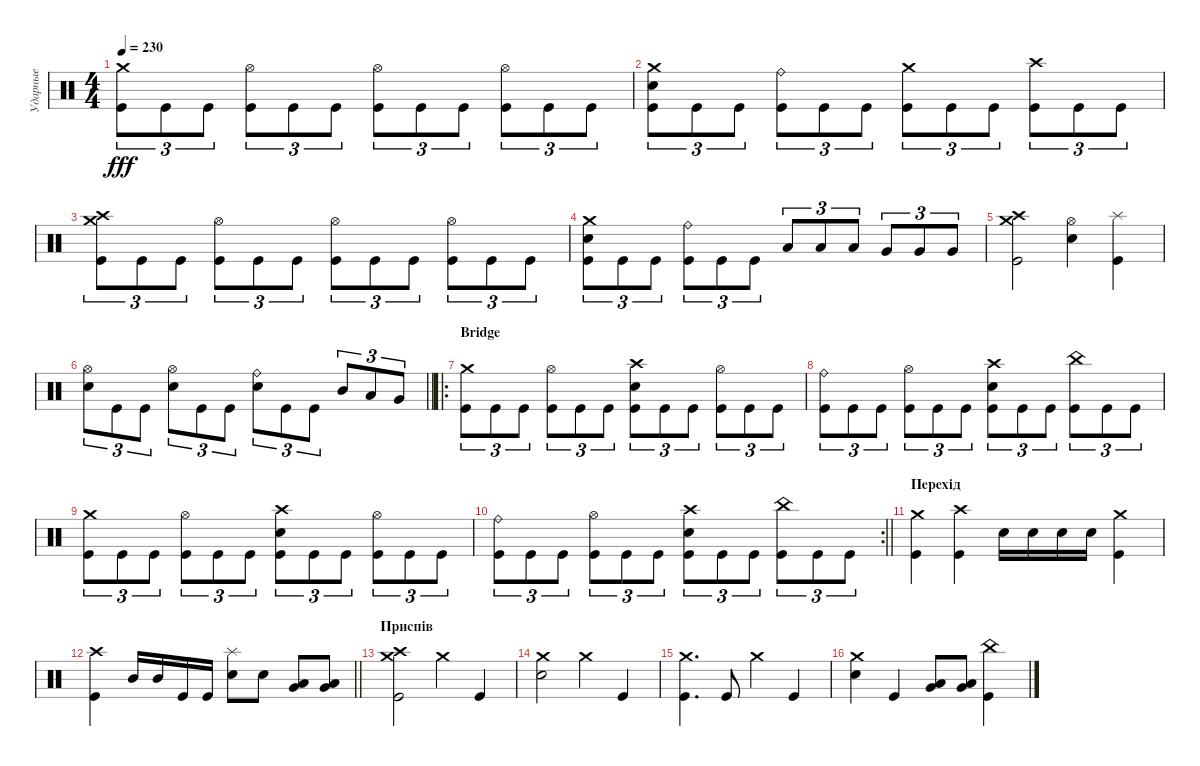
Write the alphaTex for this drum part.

\track ("Ударные" "Ударные") {instrument percussion}
\staff {score}
\articulation defaults
\ts (4 4)
\tempo 230
\clef neutral
\ks c
("Crash medium (hit)" "Kick (hit)").8{tu (3 2) dy fff} "Kick (hit)".8{tu (3 2)} "Kick (hit)".8{tu (3 2)} ("Kick (hit)" "Hi-Hat (open)").8{tu (3 2)} "Kick (hit)".8{tu (3 2)} "Kick (hit)".8{tu (3 2)} ("Kick (hit)" "Hi-Hat (open)").8{tu (3 2)} "Kick (hit)".8{tu (3 2)} "Kick (hit)".8{tu (3 2)} ("Kick (hit)" "Hi-Hat (open)").8{tu (3 2)} "Kick (hit)".8{tu (3 2)} "Kick (hit)".8{tu (3 2)} |
("Kick (hit)" "Electric Snare (hit)" "Crash medium (hit)").8{tu (3 2)} "Kick (hit)".8{tu (3 2)} "Kick (hit)".8{tu (3 2)} ("Kick (hit)" "Ride (bell)").8{tu (3 2)} "Kick (hit)".8{tu (3 2)} "Kick (hit)".8{tu (3 2)} ("Kick (hit)" "Crash medium (hit)").8{tu (3 2)} "Kick (hit)".8{tu (3 2)} "Kick (hit)".8{tu (3 2)} ("Kick (hit)" "Crash high (hit)").8{tu (3 2)} "Kick (hit)".8{tu (3 2)} "Kick (hit)".8{tu (3 2)} |
("Crash medium (hit)" "Kick (hit)" "Crash high (hit)").8{tu (3 2)} "Kick (hit)".8{tu (3 2)} "Kick (hit)".8{tu (3 2)} ("Kick (hit)" "Hi-Hat (open)").8{tu (3 2)} "Kick (hit)".8{tu (3 2)} "Kick (hit)".8{tu (3 2)} ("Kick (hit)" "Hi-Hat (open)").8{tu (3 2)} "Kick (hit)".8{tu (3 2)} "Kick (hit)".8{tu (3 2)} ("Kick (hit)" "Hi-Hat (open)").8{tu (3 2)} "Kick (hit)".8{tu (3 2)} "Kick (hit)".8{tu (3 2)} |
("Kick (hit)" "Electric Snare (hit)" "Crash medium (hit)").8{tu (3 2)} "Kick (hit)".8{tu (3 2)} "Kick (hit)".8{tu (3 2)} ("Kick (hit)" "Ride (bell)").8{tu (3 2)} "Kick (hit)".8{tu (3 2)} "Kick (hit)".8{tu (3 2)} "Low Tom (hit)".8{tu (3 2)} "Low Tom (hit)".8{tu (3 2)} "Low Tom (hit)".8{tu (3 2)} "Very Low Tom (hit)".8{tu (3 2)} "Very Low Tom (hit)".8{tu (3 2)} "Very Low Tom (hit)".8{tu (3 2)} |
("Crash high (hit)" "Crash medium (hit)" "Kick (hit)").2 ("Hi-Hat (open)" "Electric Snare (hit)").4 ("Splash (hit)" "Kick (hit)").4 |
\barLineRight lightlight
("Electric Snare (hit)" "Hi-Hat (open)").8{tu (3 2)} "Kick (hit)".8{tu (3 2)} "Kick (hit)".8{tu (3 2)} ("Electric Snare (hit)" "Hi-Hat (open)").8{tu (3 2)} "Kick (hit)".8{tu (3 2)} "Kick (hit)".8{tu (3 2)} ("Electric Snare (hit)" "Ride (bell)").8{tu (3 2)} "Kick (hit)".8{tu (3 2)} "Kick (hit)".8{tu (3 2)} "Mid Tom (hit)".8{tu (3 2)} "Low Tom (hit)".8{tu (3 2)} "Very Low Tom (hit)".8{tu (3 2)} |
\ro
\section ("" "Bridge")
("Crash medium (hit)" "Kick (hit)").8{tu (3 2)} "Kick (hit)".8{tu (3 2)} "Kick (hit)".8{tu (3 2)} ("Kick (hit)" "Hi-Hat (open)").8{tu (3 2)} "Kick (hit)".8{tu (3 2)} "Kick (hit)".8{tu (3 2)} ("Kick (hit)" "Crash high (hit)" "Electric Snare (hit)").8{tu (3 2)} "Kick (hit)".8{tu (3 2)} "Kick (hit)".8{tu (3 2)} ("Kick (hit)" "Hi-Hat (open)").8{tu (3 2)} "Kick (hit)".8{tu (3 2)} "Kick (hit)".8{tu (3 2)} |
("Ride (bell)" "Kick (hit)").8{tu (3 2)} "Kick (hit)".8{tu (3 2)} "Kick (hit)".8{tu (3 2)} ("Kick (hit)" "Hi-Hat (open)").8{tu (3 2)} "Kick (hit)".8{tu (3 2)} "Kick (hit)".8{tu (3 2)} ("Kick (hit)" "Crash high (hit)" "Electric Snare (hit)").8{tu (3 2)} "Kick (hit)".8{tu (3 2)} "Kick (hit)".8{tu (3 2)} ("Kick (hit)" "China (hit)").8{tu (3 2)} "Kick (hit)".8{tu (3 2)} "Kick (hit)".8{tu (3 2)} |
("Crash medium (hit)" "Kick (hit)").8{tu (3 2)} "Kick (hit)".8{tu (3 2)} "Kick (hit)".8{tu (3 2)} ("Kick (hit)" "Hi-Hat (open)").8{tu (3 2)} "Kick (hit)".8{tu (3 2)} "Kick (hit)".8{tu (3 2)} ("Kick (hit)" "Crash high (hit)" "Electric Snare (hit)").8{tu (3 2)} "Kick (hit)".8{tu (3 2)} "Kick (hit)".8{tu (3 2)} ("Kick (hit)" "Hi-Hat (open)").8{tu (3 2)} "Kick (hit)".8{tu (3 2)} "Kick (hit)".8{tu (3 2)} |
\rc 2
\barLineRight lightlight
("Ride (bell)" "Kick (hit)").8{tu (3 2)} "Kick (hit)".8{tu (3 2)} "Kick (hit)".8{tu (3 2)} ("Kick (hit)" "Hi-Hat (open)").8{tu (3 2)} "Kick (hit)".8{tu (3 2)} "Kick (hit)".8{tu (3 2)} ("Kick (hit)" "Crash high (hit)" "Electric Snare (hit)").8{tu (3 2)} "Kick (hit)".8{tu (3 2)} "Kick (hit)".8{tu (3 2)} ("Kick (hit)" "China (hit)").8{tu (3 2)} "Kick (hit)".8{tu (3 2)} "Kick (hit)".8{tu (3 2)} |
\section ("" "Перехід")
("Crash medium (hit)" "Kick (hit)").4 ("Crash high (hit)" "Kick (hit)").4 "Electric Snare (hit)".16 "Electric Snare (hit)".16 "Electric Snare (hit)".16 "Electric Snare (hit)".16 ("Crash medium (hit)" "Kick (hit)").4 |
\barLineRight lightlight
("Crash high (hit)" "Kick (hit)").4 "Mid Tom (hit)".16 "Mid Tom (hit)".16 "Kick (hit)".16 "Kick (hit)".16 ("Electric Snare (hit)" "Splash (hit)").8 "Electric Snare (hit)".8 ("Very Low Tom (hit)" "Low Tom (hit)").8 ("Very Low Tom (hit)" "Low Tom (hit)").8 |
\section ("" "Приспів")
("Crash medium (hit)" "Crash high (hit)" "Kick (hit)").2 "Crash medium (hit)".4 "Kick (hit)".4 |
("Electric Snare (hit)" "Crash medium (hit)").2 "Crash medium (hit)".4 "Kick (hit)".4 |
("Crash medium (hit)" "Kick (hit)").4{d} "Kick (hit)".8 "Crash medium (hit)".4 "Kick (hit)".4 |
("Electric Snare (hit)" "Crash medium (hit)").4 "Kick (hit)".4 ("Low Tom (hit)" "Very Low Tom (hit)").8 ("Very Low Tom (hit)" "Low Tom (hit)").8 ("China (hit)" "Kick (hit)").4
